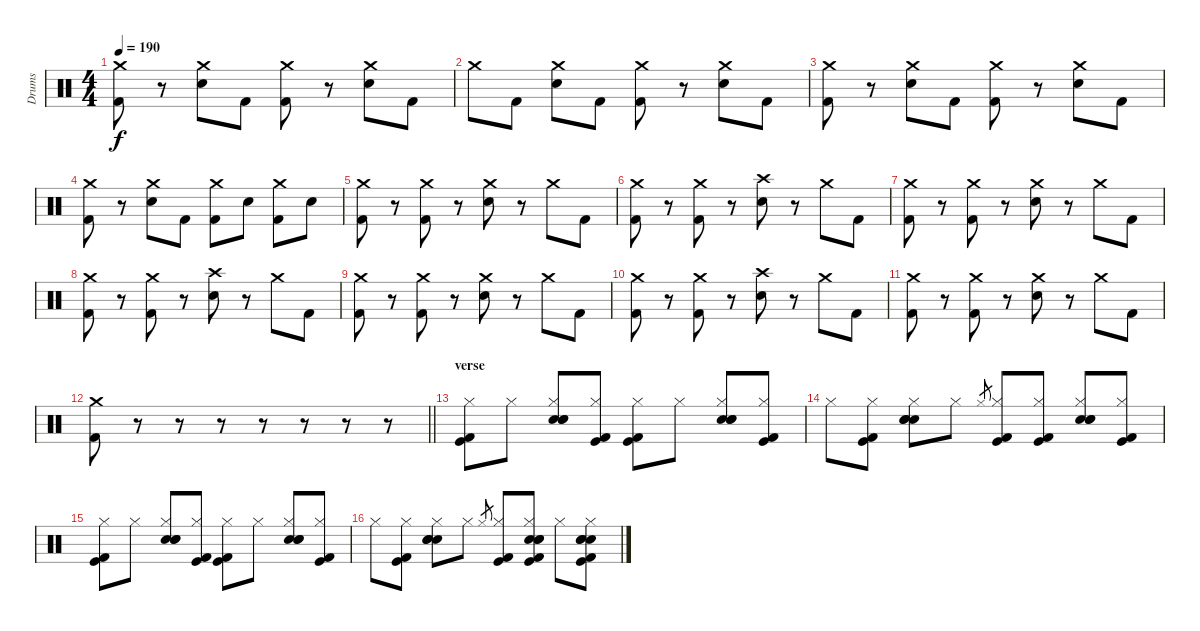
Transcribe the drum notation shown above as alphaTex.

\track ("Drums" "Drums") {instrument percussion}
\staff {score}
\articulation defaults
\ts (4 4)
\tempo 190
\clef neutral
\ks c
("Crash medium (hit)" "Kick (hit) 2").8{dy f} r.8 ("Crash medium (hit)" "Electric Snare (hit)").8 "Kick (hit) 2".8 ("Crash medium (hit)" "Kick (hit) 2").8 r.8 ("Crash medium (hit)" "Electric Snare (hit)").8 "Kick (hit) 2".8 |
"Crash medium (hit)".8 "Kick (hit) 2".8 ("Crash medium (hit)" "Electric Snare (hit)").8 "Kick (hit) 2".8 ("Crash medium (hit)" "Kick (hit) 2").8 r.8 ("Crash medium (hit)" "Electric Snare (hit)").8 "Kick (hit) 2".8 |
("Crash medium (hit)" "Kick (hit) 2").8 r.8 ("Crash medium (hit)" "Electric Snare (hit)").8 "Kick (hit) 2".8 ("Crash medium (hit)" "Kick (hit) 2").8 r.8 ("Crash medium (hit)" "Electric Snare (hit)").8 "Kick (hit) 2".8 |
("Crash medium (hit)" "Kick (hit) 2").8 r.8 ("Crash medium (hit)" "Electric Snare (hit)").8 "Kick (hit) 2".8 ("Crash medium (hit)" "Kick (hit) 2").8 "Electric Snare (hit)".8 ("Crash medium (hit)" "Kick (hit) 2").8 "Electric Snare (hit)".8 |
("Crash medium (hit)" "Kick (hit) 2").8 r.8 ("Crash medium (hit)" "Kick (hit) 2").8 r.8 ("Crash medium (hit)" "Electric Snare (hit)").8 r.8 "Crash medium (hit)".8 "Kick (hit) 2".8 |
("Crash medium (hit)" "Kick (hit) 2").8 r.8 ("Crash medium (hit)" "Kick (hit) 2").8 r.8 ("Crash high (hit)" "Electric Snare (hit)").8 r.8 "Crash medium (hit)".8 "Kick (hit) 2".8 |
("Crash medium (hit)" "Kick (hit) 2").8 r.8 ("Crash medium (hit)" "Kick (hit) 2").8 r.8 ("Crash medium (hit)" "Electric Snare (hit)").8 r.8 "Crash medium (hit)".8 "Kick (hit) 2".8 |
("Crash medium (hit)" "Kick (hit) 2").8 r.8 ("Crash medium (hit)" "Kick (hit) 2").8 r.8 ("Crash high (hit)" "Electric Snare (hit)").8 r.8 "Crash medium (hit)".8 "Kick (hit) 2".8 |
("Crash medium (hit)" "Kick (hit) 2").8 r.8 ("Crash medium (hit)" "Kick (hit) 2").8 r.8 ("Crash medium (hit)" "Electric Snare (hit)").8 r.8 "Crash medium (hit)".8 "Kick (hit) 2".8 |
("Crash medium (hit)" "Kick (hit) 2").8 r.8 ("Crash medium (hit)" "Kick (hit) 2").8 r.8 ("Crash high (hit)" "Electric Snare (hit)").8 r.8 "Crash medium (hit)".8 "Kick (hit) 2".8 |
("Crash medium (hit)" "Kick (hit) 2").8 r.8 ("Crash medium (hit)" "Kick (hit) 2").8 r.8 ("Crash medium (hit)" "Electric Snare (hit)").8 r.8 "Crash medium (hit)".8 "Kick (hit) 2".8 |
\barLineRight lightlight
("Crash medium (hit)" "Kick (hit) 2").8 r.8 r.8 r.8 r.8 r.8 r.8 r.8 |
\section ("" "verse")
("Hi-Hat (closed)" "Kick (hit)" "Kick (hit) 2").8 "Hi-Hat (closed)".8 ("Electric Snare (hit)" "Hi-Hat (closed)" "Hand Clap (hit)" "Snare (hit) 2").8 ("Hi-Hat (closed)" "Kick (hit)" "Kick (hit) 2").8 ("Hi-Hat (closed)" "Kick (hit)" "Kick (hit) 2").8 "Hi-Hat (closed)".8 ("Electric Snare (hit)" "Hi-Hat (closed)" "Hand Clap (hit)" "Snare (hit) 2").8 ("Hi-Hat (closed)" "Kick (hit)" "Kick (hit) 2").8 |
"Hi-Hat (closed)".8 ("Hi-Hat (closed)" "Kick (hit)" "Kick (hit) 2").8 ("Electric Snare (hit)" "Hi-Hat (closed)" "Hand Clap (hit)" "Snare (hit) 2").8 "Hi-Hat (closed)".8 "Hi-Hat (closed)".8{gr} ("Hi-Hat (closed)" "Kick (hit)" "Kick (hit) 2").8 ("Hi-Hat (closed)" "Kick (hit)" "Kick (hit) 2").8 ("Electric Snare (hit)" "Hi-Hat (closed)" "Hand Clap (hit)" "Snare (hit) 2").8 ("Hi-Hat (closed)" "Kick (hit)" "Kick (hit) 2").8 |
("Hi-Hat (closed)" "Kick (hit)" "Kick (hit) 2").8 "Hi-Hat (closed)".8 ("Electric Snare (hit)" "Hi-Hat (closed)" "Hand Clap (hit)" "Snare (hit) 2").8 ("Hi-Hat (closed)" "Kick (hit)" "Kick (hit) 2").8 ("Hi-Hat (closed)" "Kick (hit)" "Kick (hit) 2").8 "Hi-Hat (closed)".8 ("Electric Snare (hit)" "Hi-Hat (closed)" "Hand Clap (hit)" "Snare (hit) 2").8 ("Hi-Hat (closed)" "Kick (hit)" "Kick (hit) 2").8 |
"Hi-Hat (closed)".8 ("Hi-Hat (closed)" "Kick (hit)" "Kick (hit) 2").8 ("Electric Snare (hit)" "Hi-Hat (closed)" "Hand Clap (hit)" "Snare (hit) 2").8 "Hi-Hat (closed)".8 "Hi-Hat (closed)".8{gr} ("Hi-Hat (closed)" "Kick (hit)" "Kick (hit) 2").8 ("Hand Clap (hit)" "Electric Snare (hit)" "Hi-Hat (closed)" "Kick (hit)" "Snare (hit) 2" "Kick (hit) 2").8 "Hi-Hat (closed)".8 ("Hand Clap (hit)" "Electric Snare (hit)" "Hi-Hat (closed)" "Snare (hit) 2" "Kick (hit)" "Kick (hit) 2").8
